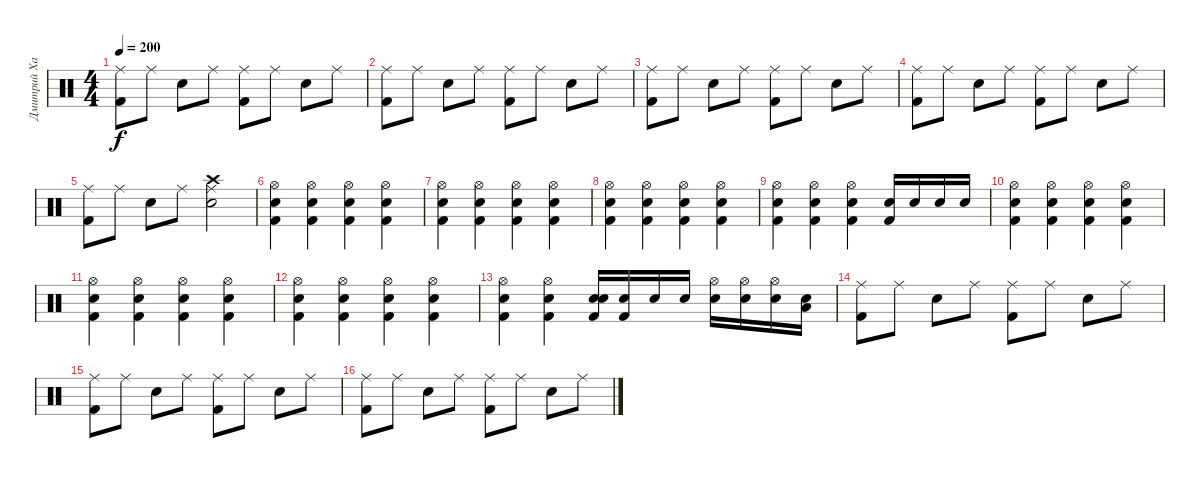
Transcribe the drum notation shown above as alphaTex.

\track ("Дмитрий Хакимов" "Дмитрий Ха") {instrument percussion}
\staff {score}
\articulation defaults
\ts (4 4)
\tempo 200
\clef neutral
\ks c
("Ride (middle)" "Kick (hit) 2").8{dy f} "Ride (middle)".8 "Electric Snare (hit)".8 "Ride (middle)".8 ("Ride (middle)" "Kick (hit) 2").8 "Ride (middle)".8 "Electric Snare (hit)".8 "Ride (middle)".8 |
("Ride (middle)" "Kick (hit) 2").8 "Ride (middle)".8 "Electric Snare (hit)".8 "Ride (middle)".8 ("Ride (middle)" "Kick (hit) 2").8 "Ride (middle)".8 "Electric Snare (hit)".8 "Ride (middle)".8 |
("Ride (middle)" "Kick (hit) 2").8 "Ride (middle)".8 "Electric Snare (hit)".8 "Ride (middle)".8 ("Ride (middle)" "Kick (hit) 2").8 "Ride (middle)".8 "Electric Snare (hit)".8 "Ride (middle)".8 |
("Ride (middle)" "Kick (hit) 2").8 "Ride (middle)".8 "Electric Snare (hit)".8 "Ride (middle)".8 ("Ride (middle)" "Kick (hit) 2").8 "Ride (middle)".8 "Electric Snare (hit)".8 "Ride (middle)".8 |
("Ride (middle)" "Kick (hit) 2").8 "Ride (middle)".8 "Electric Snare (hit)".8 "Ride (middle)".8 ("Ride (middle)" "Electric Snare (hit)" "Crash high (hit)").2 |
("Hi-Hat (open)" "Electric Snare (hit)" "Kick (hit) 2").4 ("Hi-Hat (open)" "Electric Snare (hit)" "Kick (hit) 2").4 ("Hi-Hat (open)" "Electric Snare (hit)" "Kick (hit) 2").4 ("Hi-Hat (open)" "Electric Snare (hit)" "Kick (hit) 2").4 |
("Hi-Hat (open)" "Electric Snare (hit)" "Kick (hit) 2").4 ("Hi-Hat (open)" "Electric Snare (hit)" "Kick (hit) 2").4 ("Hi-Hat (open)" "Electric Snare (hit)" "Kick (hit) 2").4 ("Hi-Hat (open)" "Electric Snare (hit)" "Kick (hit) 2").4 |
("Hi-Hat (open)" "Electric Snare (hit)" "Kick (hit) 2").4 ("Hi-Hat (open)" "Electric Snare (hit)" "Kick (hit) 2").4 ("Hi-Hat (open)" "Electric Snare (hit)" "Kick (hit) 2").4 ("Hi-Hat (open)" "Electric Snare (hit)" "Kick (hit) 2").4 |
("Hi-Hat (open)" "Electric Snare (hit)" "Kick (hit) 2").4 ("Hi-Hat (open)" "Electric Snare (hit)" "Kick (hit) 2").4 ("Hi-Hat (open)" "Electric Snare (hit)" "Kick (hit) 2").4 ("Electric Snare (hit)" "Kick (hit) 2").16 "Electric Snare (hit)".16 "Electric Snare (hit)".16 "Electric Snare (hit)".16 |
("Hi-Hat (open)" "Electric Snare (hit)" "Kick (hit) 2").4 ("Hi-Hat (open)" "Electric Snare (hit)" "Kick (hit) 2").4 ("Hi-Hat (open)" "Electric Snare (hit)" "Kick (hit) 2").4 ("Hi-Hat (open)" "Electric Snare (hit)" "Kick (hit) 2").4 |
("Hi-Hat (open)" "Electric Snare (hit)" "Kick (hit) 2").4 ("Hi-Hat (open)" "Electric Snare (hit)" "Kick (hit) 2").4 ("Hi-Hat (open)" "Electric Snare (hit)" "Kick (hit) 2").4 ("Hi-Hat (open)" "Electric Snare (hit)" "Kick (hit) 2").4 |
("Hi-Hat (open)" "Electric Snare (hit)" "Kick (hit) 2").4 ("Hi-Hat (open)" "Electric Snare (hit)" "Kick (hit) 2").4 ("Hi-Hat (open)" "Electric Snare (hit)" "Kick (hit) 2").4 ("Hi-Hat (open)" "Electric Snare (hit)" "Kick (hit) 2").4 |
("Hi-Hat (open)" "Electric Snare (hit)" "Kick (hit) 2").4 ("Hi-Hat (open)" "Electric Snare (hit)" "Kick (hit) 2").4 ("Electric Snare (hit)" "Electric Snare (hit)" "Kick (hit) 2").16 ("Electric Snare (hit)" "Kick (hit) 2").16 "Electric Snare (hit)".16 "Electric Snare (hit)".16 ("Electric Snare (hit)" "Hi-Hat (open)").16 ("Electric Snare (hit)" "Hi-Hat (open)").16 ("Electric Snare (hit)" "Hi-Hat (open)").16 ("Electric Snare (hit)" "Low Tom (hit)").16 |
("Ride (middle)" "Kick (hit) 2").8 "Ride (middle)".8 "Electric Snare (hit)".8 "Ride (middle)".8 ("Ride (middle)" "Kick (hit) 2").8 "Ride (middle)".8 "Electric Snare (hit)".8 "Ride (middle)".8 |
("Ride (middle)" "Kick (hit) 2").8 "Ride (middle)".8 "Electric Snare (hit)".8 "Ride (middle)".8 ("Ride (middle)" "Kick (hit) 2").8 "Ride (middle)".8 "Electric Snare (hit)".8 "Ride (middle)".8 |
("Ride (middle)" "Kick (hit) 2").8 "Ride (middle)".8 "Electric Snare (hit)".8 "Ride (middle)".8 ("Ride (middle)" "Kick (hit) 2").8 "Ride (middle)".8 "Electric Snare (hit)".8 "Ride (middle)".8
